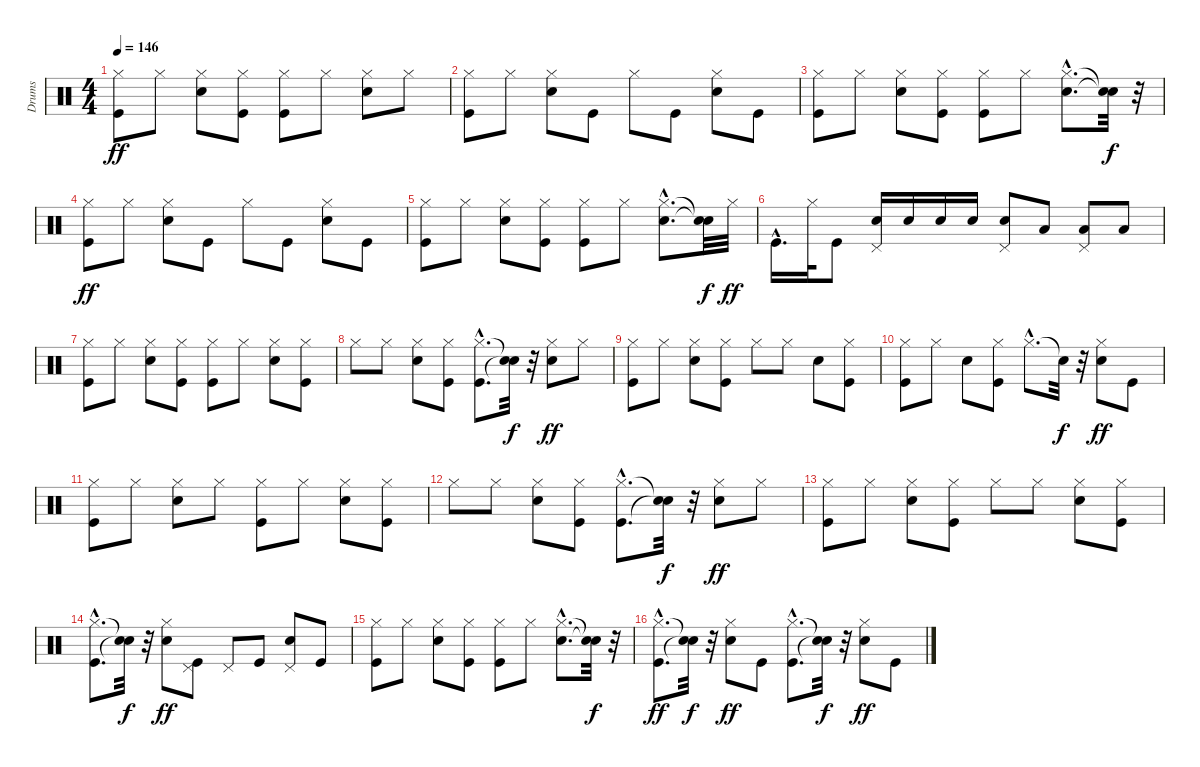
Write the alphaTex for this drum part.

\track ("Drums" "Drums") {instrument percussion}
\staff {score}
\articulation defaults
\ts (4 4)
\tempo 146
\clef neutral
\ks c
("Kick (hit)" "Hi-Hat (closed)").8{dy ff} "Hi-Hat (closed)".8 ("Snare (hit) 2" "Hi-Hat (closed)").8 ("Kick (hit)" "Hi-Hat (closed)").8 ("Kick (hit)" "Hi-Hat (closed)").8 "Hi-Hat (closed)".8 ("Snare (hit) 2" "Hi-Hat (closed)").8 "Hi-Hat (closed)".8 |
("Kick (hit)" "Hi-Hat (closed)").8 "Hi-Hat (closed)".8 ("Snare (hit) 2" "Hi-Hat (closed)").8 "Kick (hit)".8 "Hi-Hat (closed)".8 "Kick (hit)".8 ("Snare (hit) 2" "Hi-Hat (closed)").8 "Kick (hit)".8 |
("Kick (hit)" "Hi-Hat (closed)").8 "Hi-Hat (closed)".8 ("Snare (hit) 2" "Hi-Hat (closed)").8 ("Kick (hit)" "Hi-Hat (closed)").8 ("Kick (hit)" "Hi-Hat (closed)").8 "Hi-Hat (closed)".8 ("Snare (hit) 2"{hac} "Hi-Hat (closed)"{hac}).8{d} ("Snare (hit)"{t} "Snare (hit)"{t}).32{dy f} r.32 |
("Kick (hit)" "Hi-Hat (closed)").8{dy ff} "Hi-Hat (closed)".8 ("Snare (hit) 2" "Hi-Hat (closed)").8 "Kick (hit)".8 "Hi-Hat (closed)".8 "Kick (hit)".8 ("Snare (hit) 2" "Hi-Hat (closed)").8 "Kick (hit)".8 |
("Kick (hit)" "Hi-Hat (closed)").8 "Hi-Hat (closed)".8 ("Snare (hit) 2" "Hi-Hat (closed)").8 ("Kick (hit)" "Hi-Hat (closed)").8 ("Kick (hit)" "Hi-Hat (closed)").8 "Hi-Hat (closed)".8 ("Snare (hit) 2"{hac} "Hi-Hat (closed)"{hac}).8{d} ("Snare (hit)"{t} "Snare (hit)"{t}).32{dy f} "Hi-Hat (closed)".32{dy ff} |
"Kick (hit)"{hac}.16{d} "Hi-Hat (closed)".32 "Kick (hit)".8 ("Snare (hit) 2" "Pedal Hi-Hat (hit)").16 "Snare (hit) 2".16 "Snare (hit) 2".16 "Snare (hit) 2".16 ("Snare (hit) 2" "Pedal Hi-Hat (hit)").8 "Low Tom (hit)".8 ("Low Floor Tom (hit)" "Pedal Hi-Hat (hit)").8 "Low Floor Tom (hit)".8 |
("Kick (hit)" "Hi-Hat (closed)").8 "Hi-Hat (closed)".8 ("Snare (hit) 2" "Hi-Hat (closed)").8 ("Kick (hit)" "Hi-Hat (closed)").8 ("Kick (hit)" "Hi-Hat (closed)").8 "Hi-Hat (closed)".8 ("Snare (hit) 2" "Hi-Hat (closed)").8 ("Kick (hit)" "Hi-Hat (closed)").8 |
"Hi-Hat (closed)".8 "Hi-Hat (closed)".8 ("Snare (hit) 2" "Hi-Hat (closed)").8 ("Kick (hit)" "Hi-Hat (closed)").8 ("Kick (hit)"{hac} "Hi-Hat (closed)"{hac}).8{d} ("Snare (hit)"{t} "Snare (hit)"{t}).32{dy f} r.32 ("Snare (hit) 2" "Hi-Hat (closed)").8{dy ff} "Hi-Hat (closed)".8 |
("Kick (hit)" "Hi-Hat (closed)").8 "Hi-Hat (closed)".8 ("Snare (hit) 2" "Hi-Hat (closed)").8 ("Kick (hit)" "Hi-Hat (closed)").8 "Hi-Hat (closed)".8 "Hi-Hat (closed)".8 "Snare (hit) 2".8 ("Kick (hit)" "Hi-Hat (closed)").8 |
("Kick (hit)" "Hi-Hat (closed)").8 "Hi-Hat (closed)".8 "Snare (hit) 2".8 ("Kick (hit)" "Hi-Hat (closed)").8 "Hi-Hat (closed)"{hac}.8{d} "Snare (hit)"{t}.32{dy f} r.32 ("Snare (hit) 2" "Hi-Hat (closed)").8{dy ff} "Kick (hit)".8 |
("Kick (hit)" "Hi-Hat (closed)").8 "Hi-Hat (closed)".8 ("Snare (hit) 2" "Hi-Hat (closed)").8 "Hi-Hat (closed)".8 ("Kick (hit)" "Hi-Hat (closed)").8 "Hi-Hat (closed)".8 ("Snare (hit) 2" "Hi-Hat (closed)").8 ("Kick (hit)" "Hi-Hat (closed)").8 |
"Hi-Hat (closed)".8 "Hi-Hat (closed)".8 ("Snare (hit) 2" "Hi-Hat (closed)").8 ("Kick (hit)" "Hi-Hat (closed)").8 ("Kick (hit)"{hac} "Hi-Hat (closed)"{hac}).8{d} ("Snare (hit)"{t} "Snare (hit)"{t}).32{dy f} r.32 ("Snare (hit) 2" "Hi-Hat (closed)").8{dy ff} "Hi-Hat (closed)".8 |
("Kick (hit)" "Hi-Hat (closed)").8 "Hi-Hat (closed)".8 ("Snare (hit) 2" "Hi-Hat (closed)").8 ("Kick (hit)" "Hi-Hat (closed)").8 "Hi-Hat (closed)".8 "Hi-Hat (closed)".8 ("Snare (hit) 2" "Hi-Hat (closed)").8 ("Kick (hit)" "Hi-Hat (closed)").8 |
("Kick (hit)"{hac} "Hi-Hat (closed)"{hac}).8{d} ("Snare (hit)"{t} "Snare (hit)"{t}).32{dy f} r.32 ("Snare (hit) 2" "Hi-Hat (closed)").8{dy ff} ("Kick (hit)" "Pedal Hi-Hat (hit)").8 "Pedal Hi-Hat (hit)".8 "Kick (hit)".8 ("Snare (hit) 2" "Pedal Hi-Hat (hit)").8 "Kick (hit)".8 |
("Kick (hit)" "Hi-Hat (closed)").8 "Hi-Hat (closed)".8 ("Snare (hit) 2" "Hi-Hat (closed)").8 ("Kick (hit)" "Hi-Hat (closed)").8 ("Kick (hit)" "Hi-Hat (closed)").8 "Hi-Hat (closed)".8 ("Snare (hit) 2"{hac} "Hi-Hat (closed)"{hac}).8{d} ("Snare (hit)"{t} "Snare (hit)"{t}).32{dy f} r.32 |
("Kick (hit)"{hac} "Hi-Hat (closed)"{hac}).8{d dy ff} ("Snare (hit)"{t} "Snare (hit)"{t}).32{dy f} r.32 ("Snare (hit) 2" "Hi-Hat (closed)").8{dy ff} "Kick (hit)".8 ("Kick (hit)"{hac} "Hi-Hat (closed)"{hac}).8{d} ("Snare (hit)"{t} "Snare (hit)"{t}).32{dy f} r.32 ("Snare (hit) 2" "Hi-Hat (closed)").8{dy ff} "Kick (hit)".8
